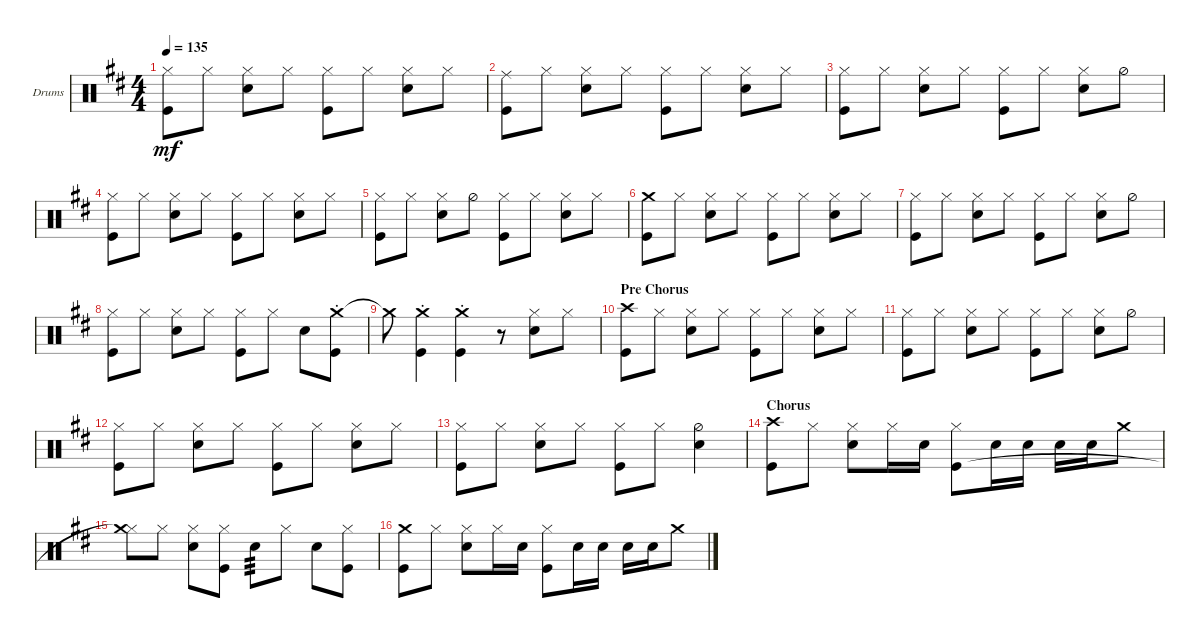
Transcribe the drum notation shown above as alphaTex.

\defaultSystemsLayout 4
\bracketExtendMode groupsimilarinstruments
\firstSystemTrackNameOrientation horizontal
\otherSystemsTrackNameOrientation horizontal
\track ("Drumkit" "Drums") {instrument percussion}
\staff {score}
\articulation defaults
\ts (4 4)
\tempo 135
\clef neutral
\ks bminor
("Hi-Hat (closed)" "Kick (hit)").8{dy mf} "Hi-Hat (closed)".8 ("Snare (hit) 2" "Hi-Hat (closed)").8 "Hi-Hat (closed)".8 ("Kick (hit)" "Hi-Hat (closed)").8 "Hi-Hat (closed)".8 ("Snare (hit) 2" "Hi-Hat (closed)").8 "Hi-Hat (closed)".8 |
("Kick (hit)" "Ride (middle)").8 "Hi-Hat (closed)".8 ("Snare (hit) 2" "Hi-Hat (closed)").8 "Hi-Hat (closed)".8 ("Kick (hit)" "Hi-Hat (closed)").8 "Hi-Hat (closed)".8 ("Snare (hit) 2" "Hi-Hat (closed)").8 "Hi-Hat (closed)".8 |
("Hi-Hat (closed)" "Kick (hit)").8 "Hi-Hat (closed)".8 ("Snare (hit) 2" "Hi-Hat (closed)").8 "Hi-Hat (closed)".8 ("Kick (hit)" "Hi-Hat (closed)").8 "Hi-Hat (closed)".8 ("Snare (hit) 2" "Hi-Hat (closed)").8 "Hi-Hat (half)".8 |
("Hi-Hat (closed)" "Kick (hit)").8 "Hi-Hat (closed)".8 ("Snare (hit) 2" "Hi-Hat (closed)").8 "Hi-Hat (closed)".8 ("Kick (hit)" "Hi-Hat (closed)").8 "Hi-Hat (closed)".8 ("Snare (hit) 2" "Hi-Hat (closed)").8 "Hi-Hat (closed)".8 |
("Hi-Hat (closed)" "Kick (hit)").8 "Hi-Hat (closed)".8 ("Snare (hit) 2" "Hi-Hat (closed)").8 "Hi-Hat (half)".8 ("Kick (hit)" "Hi-Hat (closed)").8 "Hi-Hat (closed)".8 ("Hi-Hat (closed)" "Snare (hit) 2").8 "Hi-Hat (closed)".8 |
("Crash medium (hit)" "Kick (hit)").8 "Hi-Hat (closed)".8 ("Snare (hit) 2" "Hi-Hat (closed)").8 "Hi-Hat (closed)".8 ("Kick (hit)" "Hi-Hat (closed)").8 "Hi-Hat (closed)".8 ("Snare (hit) 2" "Hi-Hat (closed)").8 "Hi-Hat (closed)".8 |
("Hi-Hat (closed)" "Kick (hit)").8 "Hi-Hat (closed)".8 ("Snare (hit) 2" "Hi-Hat (closed)").8 "Hi-Hat (closed)".8 ("Kick (hit)" "Hi-Hat (closed)").8 "Hi-Hat (closed)".8 ("Snare (hit) 2" "Hi-Hat (closed)").8 "Hi-Hat (half)".8 |
("Hi-Hat (closed)" "Kick (hit)").8 "Hi-Hat (closed)".8 ("Snare (hit) 2" "Hi-Hat (closed)").8 "Hi-Hat (closed)".8 ("Kick (hit)" "Hi-Hat (closed)").8 "Hi-Hat (closed)".8 "Snare (hit) 2".8 ("Crash medium (hit)"{st} "Kick (hit)").8 |
"Crash medium (hit)"{t}.8 ("Crash medium (hit)"{st} "Kick (hit)").4 ("Crash medium (hit)"{st} "Kick (hit)").4 r.8 ("Snare (hit) 2" "Hi-Hat (closed)").8 "Hi-Hat (closed)".8 |
\section ("" "Pre Chorus")
("Crash high (hit)" "Kick (hit)").8 "Hi-Hat (closed)".8 ("Hi-Hat (closed)" "Snare (hit) 2").8 "Hi-Hat (closed)".8 ("Hi-Hat (closed)" "Kick (hit)").8 "Hi-Hat (closed)".8 ("Hi-Hat (closed)" "Snare (hit) 2").8 "Hi-Hat (closed)".8 |
("Hi-Hat (closed)" "Kick (hit)").8 "Hi-Hat (closed)".8 ("Hi-Hat (closed)" "Snare (hit) 2").8 "Hi-Hat (closed)".8 ("Hi-Hat (closed)" "Kick (hit)").8 "Hi-Hat (closed)".8 ("Hi-Hat (closed)" "Snare (hit) 2").8 "Hi-Hat (half)".8 |
("Hi-Hat (closed)" "Kick (hit)").8 "Hi-Hat (closed)".8 ("Hi-Hat (closed)" "Snare (hit) 2").8 "Hi-Hat (closed)".8 ("Hi-Hat (closed)" "Kick (hit)").8 "Hi-Hat (closed)".8 ("Hi-Hat (closed)" "Snare (hit) 2").8 "Hi-Hat (closed)".8 |
("Hi-Hat (closed)" "Kick (hit)").8 "Hi-Hat (closed)".8 ("Hi-Hat (closed)" "Snare (hit) 2").8 "Hi-Hat (closed)".8 ("Hi-Hat (closed)" "Kick (hit)").8 "Hi-Hat (closed)".8 ("Hi-Hat (half)" "Snare (hit) 2").4 |
\section ("" "Chorus")
("Crash high (hit)" "Kick (hit)").8 "Hi-Hat (closed)".8 ("Snare (hit) 2" "Hi-Hat (closed)").8 "Hi-Hat (closed)".16 "Snare (hit) 2".16 ("Hi-Hat (closed)" "Kick (hit)").8 "Snare (hit) 2".16 "Snare (hit) 2".16 "Snare (hit) 2".16 "Snare (hit) 2".16 "Crash medium (hit)".8 |
("Hi-Hat (closed)" "Crash medium (hit)"{t}).8 "Hi-Hat (closed)".8 ("Snare (hit) 2" "Hi-Hat (closed)").8 ("Kick (hit)" "Hi-Hat (closed)").8 "Snare (hit) 2".8{tp 3} "Hi-Hat (closed)".8 "Snare (hit) 2".8 ("Hi-Hat (closed)" "Kick (hit)").8 |
("Kick (hit)" "Crash medium (hit)").8 "Hi-Hat (closed)".8 ("Snare (hit) 2" "Hi-Hat (closed)").8 "Hi-Hat (closed)".16 "Snare (hit) 2".16 ("Hi-Hat (closed)" "Kick (hit)").8 "Snare (hit) 2".16 "Snare (hit) 2".16 "Snare (hit) 2".16 "Snare (hit) 2".16 "Crash medium (hit)".8
